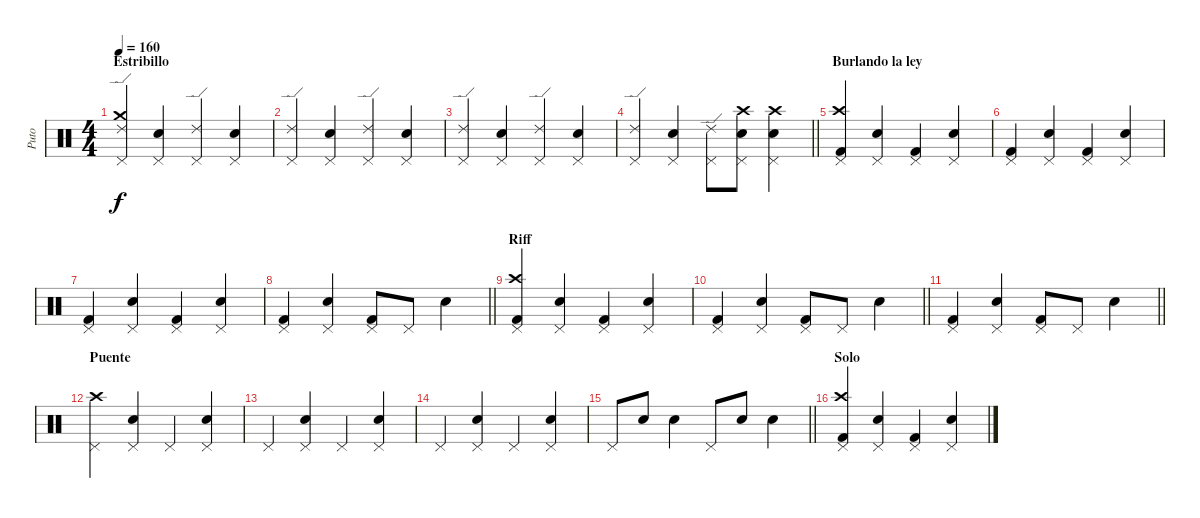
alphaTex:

\track ("Puto" "Puto") {instrument percussion}
\staff {score}
\articulation defaults
\ts (4 4)
\section ("" "Estribillo")
\tempo 160
\clef neutral
\ks c
("Ride (edge) 2" "Crash medium (hit)" "Pedal Hi-Hat (hit)").4{dy f} ("Snare (hit) 2" "Pedal Hi-Hat (hit)").4 ("Ride (edge) 2" "Pedal Hi-Hat (hit)").4 ("Snare (hit) 2" "Pedal Hi-Hat (hit)").4 |
("Ride (edge) 2" "Pedal Hi-Hat (hit)").4 ("Snare (hit) 2" "Pedal Hi-Hat (hit)").4 ("Ride (edge) 2" "Pedal Hi-Hat (hit)").4 ("Snare (hit) 2" "Pedal Hi-Hat (hit)").4 |
("Ride (edge) 2" "Pedal Hi-Hat (hit)").4 ("Snare (hit) 2" "Pedal Hi-Hat (hit)").4 ("Ride (edge) 2" "Pedal Hi-Hat (hit)").4 ("Snare (hit) 2" "Pedal Hi-Hat (hit)").4 |
\barLineRight lightlight
("Ride (edge) 2" "Pedal Hi-Hat (hit)").4 ("Snare (hit) 2" "Pedal Hi-Hat (hit)").4 ("Ride (edge) 2" "Pedal Hi-Hat (hit)").8 ("Crash high (hit)" "Snare (hit) 2" "Pedal Hi-Hat (hit)").8 ("Crash high (hit)" "Snare (hit) 2" "Pedal Hi-Hat (hit)").4 |
\section ("" "Burlando la ley")
("Kick (hit) 2" "Crash high (hit)" "Pedal Hi-Hat (hit)").4 ("Snare (hit) 2" "Pedal Hi-Hat (hit)").4 ("Kick (hit) 2" "Pedal Hi-Hat (hit)").4 ("Snare (hit) 2" "Pedal Hi-Hat (hit)").4 |
("Kick (hit) 2" "Pedal Hi-Hat (hit)").4 ("Snare (hit) 2" "Pedal Hi-Hat (hit)").4 ("Kick (hit) 2" "Pedal Hi-Hat (hit)").4 ("Snare (hit) 2" "Pedal Hi-Hat (hit)").4 |
("Kick (hit) 2" "Pedal Hi-Hat (hit)").4 ("Snare (hit) 2" "Pedal Hi-Hat (hit)").4 ("Kick (hit) 2" "Pedal Hi-Hat (hit)").4 ("Snare (hit) 2" "Pedal Hi-Hat (hit)").4 |
\barLineRight lightlight
("Kick (hit) 2" "Pedal Hi-Hat (hit)").4 ("Snare (hit) 2" "Pedal Hi-Hat (hit)").4 ("Kick (hit) 2" "Pedal Hi-Hat (hit)").8 "Pedal Hi-Hat (hit)".8 "Snare (hit) 2".4 |
\section ("" "Riff")
("Kick (hit) 2" "Crash high (hit)" "Pedal Hi-Hat (hit)").4 ("Snare (hit) 2" "Pedal Hi-Hat (hit)").4 ("Kick (hit) 2" "Pedal Hi-Hat (hit)").4 ("Snare (hit) 2" "Pedal Hi-Hat (hit)").4 |
\barLineRight lightlight
("Kick (hit) 2" "Pedal Hi-Hat (hit)").4 ("Snare (hit) 2" "Pedal Hi-Hat (hit)").4 ("Kick (hit) 2" "Pedal Hi-Hat (hit)").8 "Pedal Hi-Hat (hit)".8 "Snare (hit) 2".4 |
\section ("" "")
\barLineRight lightlight
("Kick (hit) 2" "Pedal Hi-Hat (hit)").4 ("Snare (hit) 2" "Pedal Hi-Hat (hit)").4 ("Kick (hit) 2" "Pedal Hi-Hat (hit)").8 "Pedal Hi-Hat (hit)".8 "Snare (hit) 2".4 |
\section ("" "Puente")
("Crash high (hit)" "Pedal Hi-Hat (hit)").4 ("Snare (hit) 2" "Pedal Hi-Hat (hit)").4 "Pedal Hi-Hat (hit)".4 ("Snare (hit) 2" "Pedal Hi-Hat (hit)").4 |
"Pedal Hi-Hat (hit)".4 ("Snare (hit) 2" "Pedal Hi-Hat (hit)").4 "Pedal Hi-Hat (hit)".4 ("Snare (hit) 2" "Pedal Hi-Hat (hit)").4 |
"Pedal Hi-Hat (hit)".4 ("Snare (hit) 2" "Pedal Hi-Hat (hit)").4 "Pedal Hi-Hat (hit)".4 ("Snare (hit) 2" "Pedal Hi-Hat (hit)").4 |
\barLineRight lightlight "Pedal Hi-Hat (hit)".8 "Snare (hit) 2".8 "Snare (hit) 2".4 "Pedal Hi-Hat (hit)".8 "Snare (hit) 2".8 "Snare (hit) 2".4
|
\section ("" "Solo")
("Kick (hit) 2" "Crash high (hit)" "Pedal Hi-Hat (hit)").4 ("Snare (hit) 2" "Pedal Hi-Hat (hit)").4 ("Kick (hit) 2" "Pedal Hi-Hat (hit)").4 ("Snare (hit) 2" "Pedal Hi-Hat (hit)").4
